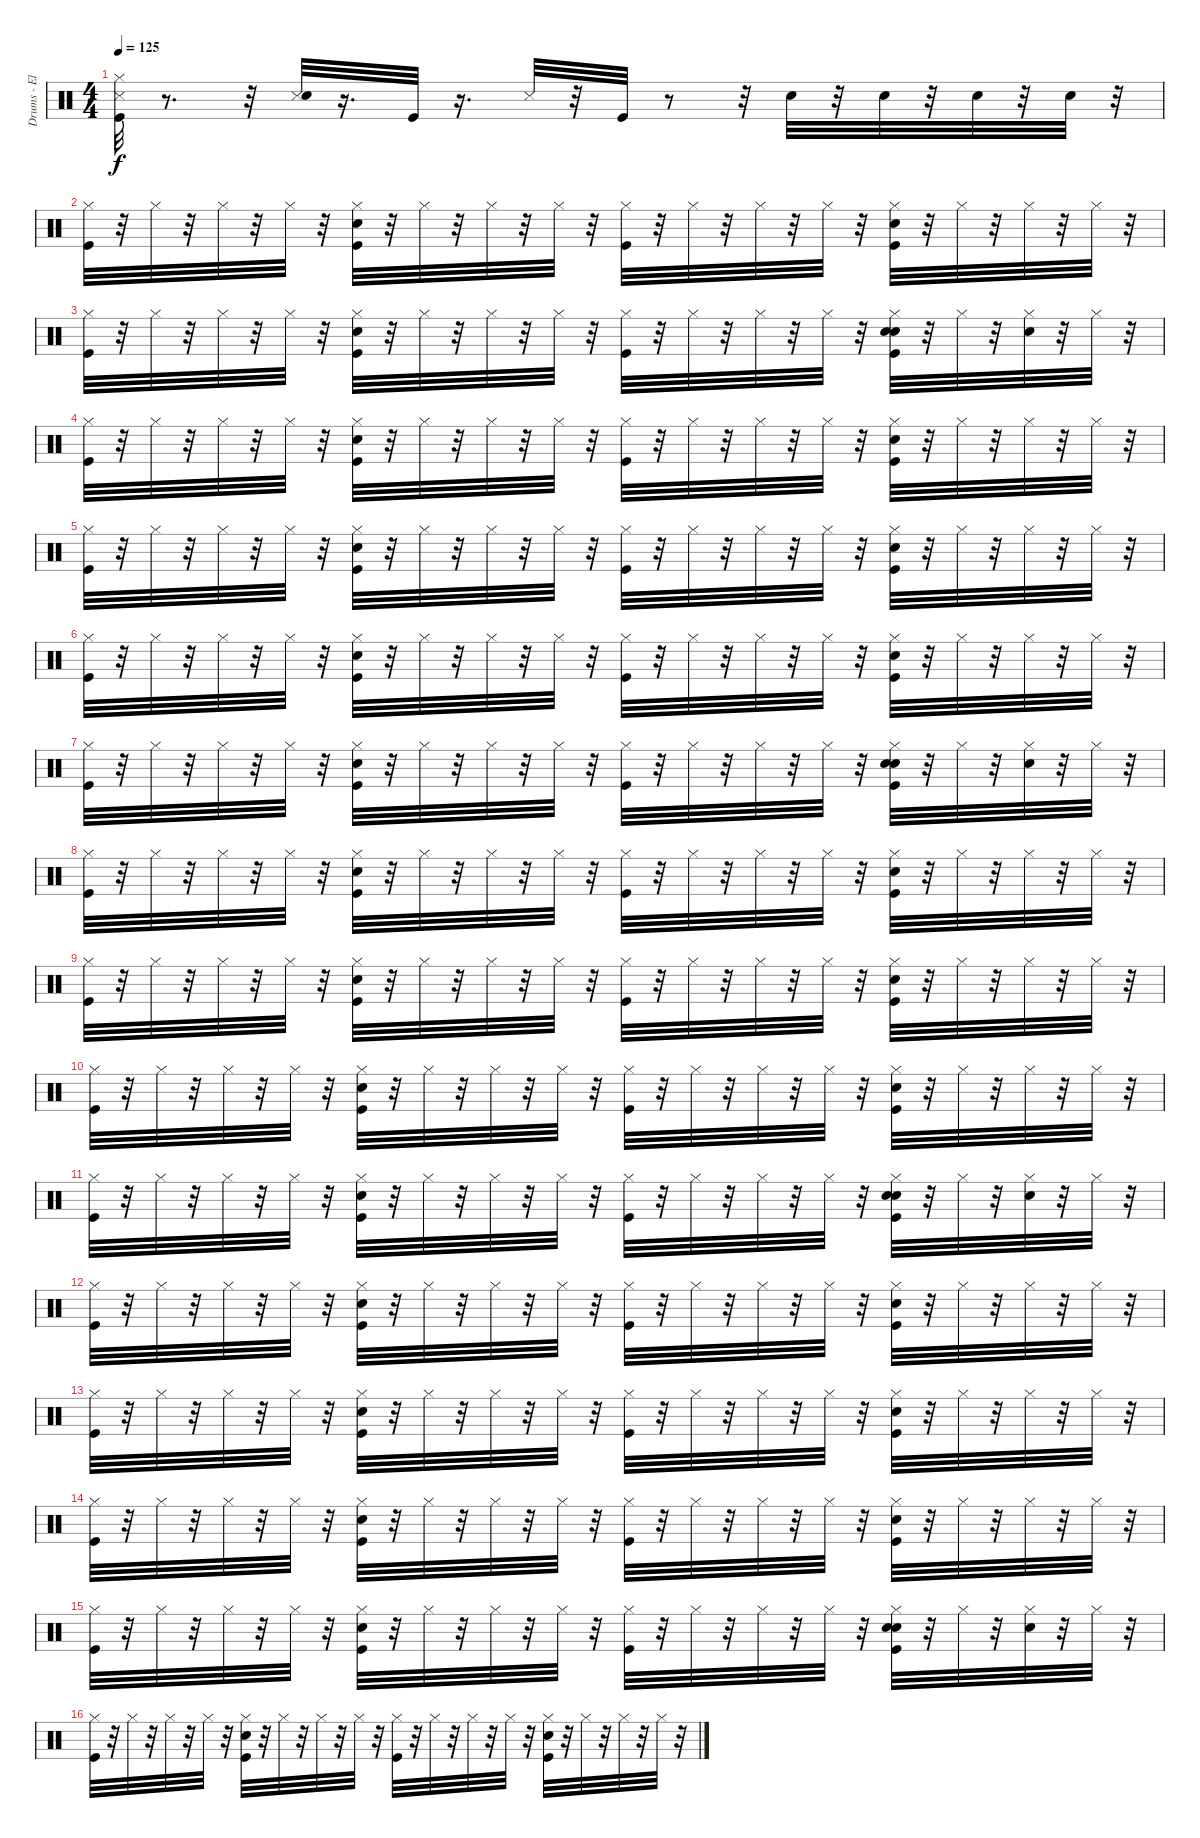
\track ("Drums - El" "Drums - El") {instrument percussion}
\staff {score}
\articulation defaults
\ts (4 4)
\tempo 125
\clef neutral
\ks c
("Kick (hit)" "Snare (side stick) 3" "Hi-Hat (closed)").32{dy f} r.8{d} r.32 ("Snare (side stick) 3" "Electric Snare (hit)").32 r.16{d} "Kick (hit)".32 r.16{d} "Snare (side stick) 3".32 r.32 "Kick (hit)".32 r.8 r.32 "Electric Snare (hit)".32 r.32 "Electric Snare (hit)".32 r.32 "Electric Snare (hit)".32 r.32 "Electric Snare (hit)".32 r.32 |
("Kick (hit)" "Hi-Hat (closed)").32 r.32 "Hi-Hat (closed)".32 r.32 "Hi-Hat (closed)".32 r.32 "Hi-Hat (closed)".32 r.32 ("Kick (hit)" "Electric Snare (hit)" "Hi-Hat (closed)").32 r.32 "Hi-Hat (closed)".32 r.32 "Hi-Hat (closed)".32 r.32 "Hi-Hat (closed)".32 r.32 ("Kick (hit)" "Hi-Hat (closed)").32 r.32 "Hi-Hat (closed)".32 r.32 "Hi-Hat (closed)".32 r.32 "Hi-Hat (closed)".32 r.32 ("Kick (hit)" "Electric Snare (hit)" "Hi-Hat (closed)").32 r.32 "Hi-Hat (closed)".32 r.32 "Hi-Hat (closed)".32 r.32 "Hi-Hat (closed)".32 r.32 |
("Kick (hit)" "Hi-Hat (closed)").32 r.32 "Hi-Hat (closed)".32 r.32 "Hi-Hat (closed)".32 r.32 "Hi-Hat (closed)".32 r.32 ("Kick (hit)" "Electric Snare (hit)" "Hi-Hat (closed)").32 r.32 "Hi-Hat (closed)".32 r.32 "Hi-Hat (closed)".32 r.32 "Hi-Hat (closed)".32 r.32 ("Kick (hit)" "Hi-Hat (closed)").32 r.32 "Hi-Hat (closed)".32 r.32 "Hi-Hat (closed)".32 r.32 "Hi-Hat (closed)".32 r.32 ("Kick (hit)" "Electric Snare (hit)" "Hand Clap (hit)" "Hi-Hat (closed)").32 r.32 "Hi-Hat (closed)".32 r.32 ("Hand Clap (hit)" "Hi-Hat (closed)").32 r.32 "Hi-Hat (closed)".32 r.32 |
("Kick (hit)" "Hi-Hat (closed)").32 r.32 "Hi-Hat (closed)".32 r.32 "Hi-Hat (closed)".32 r.32 "Hi-Hat (closed)".32 r.32 ("Kick (hit)" "Electric Snare (hit)" "Hi-Hat (closed)").32 r.32 "Hi-Hat (closed)".32 r.32 "Hi-Hat (closed)".32 r.32 "Hi-Hat (closed)".32 r.32 ("Kick (hit)" "Hi-Hat (closed)").32 r.32 "Hi-Hat (closed)".32 r.32 "Hi-Hat (closed)".32 r.32 "Hi-Hat (closed)".32 r.32 ("Kick (hit)" "Electric Snare (hit)" "Hi-Hat (closed)").32 r.32 "Hi-Hat (closed)".32 r.32 "Hi-Hat (closed)".32 r.32 "Hi-Hat (closed)".32 r.32 |
("Kick (hit)" "Hi-Hat (closed)").32 r.32 "Hi-Hat (closed)".32 r.32 "Hi-Hat (closed)".32 r.32 "Hi-Hat (closed)".32 r.32 ("Kick (hit)" "Electric Snare (hit)" "Hi-Hat (closed)").32 r.32 "Hi-Hat (closed)".32 r.32 "Hi-Hat (closed)".32 r.32 "Hi-Hat (closed)".32 r.32 ("Kick (hit)" "Hi-Hat (closed)").32 r.32 "Hi-Hat (closed)".32 r.32 "Hi-Hat (closed)".32 r.32 "Hi-Hat (closed)".32 r.32 ("Kick (hit)" "Electric Snare (hit)" "Hi-Hat (closed)").32 r.32 "Hi-Hat (closed)".32 r.32 "Hi-Hat (closed)".32 r.32 "Hi-Hat (closed)".32 r.32 |
("Kick (hit)" "Hi-Hat (closed)").32 r.32 "Hi-Hat (closed)".32 r.32 "Hi-Hat (closed)".32 r.32 "Hi-Hat (closed)".32 r.32 ("Kick (hit)" "Electric Snare (hit)" "Hi-Hat (closed)").32 r.32 "Hi-Hat (closed)".32 r.32 "Hi-Hat (closed)".32 r.32 "Hi-Hat (closed)".32 r.32 ("Kick (hit)" "Hi-Hat (closed)").32 r.32 "Hi-Hat (closed)".32 r.32 "Hi-Hat (closed)".32 r.32 "Hi-Hat (closed)".32 r.32 ("Kick (hit)" "Electric Snare (hit)" "Hi-Hat (closed)").32 r.32 "Hi-Hat (closed)".32 r.32 "Hi-Hat (closed)".32 r.32 "Hi-Hat (closed)".32 r.32 |
("Kick (hit)" "Hi-Hat (closed)").32 r.32 "Hi-Hat (closed)".32 r.32 "Hi-Hat (closed)".32 r.32 "Hi-Hat (closed)".32 r.32 ("Kick (hit)" "Electric Snare (hit)" "Hi-Hat (closed)").32 r.32 "Hi-Hat (closed)".32 r.32 "Hi-Hat (closed)".32 r.32 "Hi-Hat (closed)".32 r.32 ("Kick (hit)" "Hi-Hat (closed)").32 r.32 "Hi-Hat (closed)".32 r.32 "Hi-Hat (closed)".32 r.32 "Hi-Hat (closed)".32 r.32 ("Kick (hit)" "Electric Snare (hit)" "Hand Clap (hit)" "Hi-Hat (closed)").32 r.32 "Hi-Hat (closed)".32 r.32 ("Hand Clap (hit)" "Hi-Hat (closed)").32 r.32 "Hi-Hat (closed)".32 r.32 |
("Kick (hit)" "Hi-Hat (closed)").32 r.32 "Hi-Hat (closed)".32 r.32 "Hi-Hat (closed)".32 r.32 "Hi-Hat (closed)".32 r.32 ("Kick (hit)" "Electric Snare (hit)" "Hi-Hat (closed)").32 r.32 "Hi-Hat (closed)".32 r.32 "Hi-Hat (closed)".32 r.32 "Hi-Hat (closed)".32 r.32 ("Kick (hit)" "Hi-Hat (closed)").32 r.32 "Hi-Hat (closed)".32 r.32 "Hi-Hat (closed)".32 r.32 "Hi-Hat (closed)".32 r.32 ("Kick (hit)" "Electric Snare (hit)" "Hi-Hat (closed)").32 r.32 "Hi-Hat (closed)".32 r.32 "Hi-Hat (closed)".32 r.32 "Hi-Hat (closed)".32 r.32 |
("Kick (hit)" "Hi-Hat (closed)").32 r.32 "Hi-Hat (closed)".32 r.32 "Hi-Hat (closed)".32 r.32 "Hi-Hat (closed)".32 r.32 ("Kick (hit)" "Electric Snare (hit)" "Hi-Hat (closed)").32 r.32 "Hi-Hat (closed)".32 r.32 "Hi-Hat (closed)".32 r.32 "Hi-Hat (closed)".32 r.32 ("Kick (hit)" "Hi-Hat (closed)").32 r.32 "Hi-Hat (closed)".32 r.32 "Hi-Hat (closed)".32 r.32 "Hi-Hat (closed)".32 r.32 ("Kick (hit)" "Electric Snare (hit)" "Hi-Hat (closed)").32 r.32 "Hi-Hat (closed)".32 r.32 "Hi-Hat (closed)".32 r.32 "Hi-Hat (closed)".32 r.32 |
("Kick (hit)" "Hi-Hat (closed)").32 r.32 "Hi-Hat (closed)".32 r.32 "Hi-Hat (closed)".32 r.32 "Hi-Hat (closed)".32 r.32 ("Kick (hit)" "Electric Snare (hit)" "Hi-Hat (closed)").32 r.32 "Hi-Hat (closed)".32 r.32 "Hi-Hat (closed)".32 r.32 "Hi-Hat (closed)".32 r.32 ("Kick (hit)" "Hi-Hat (closed)").32 r.32 "Hi-Hat (closed)".32 r.32 "Hi-Hat (closed)".32 r.32 "Hi-Hat (closed)".32 r.32 ("Kick (hit)" "Electric Snare (hit)" "Hi-Hat (closed)").32 r.32 "Hi-Hat (closed)".32 r.32 "Hi-Hat (closed)".32 r.32 "Hi-Hat (closed)".32 r.32 |
("Kick (hit)" "Hi-Hat (closed)").32 r.32 "Hi-Hat (closed)".32 r.32 "Hi-Hat (closed)".32 r.32 "Hi-Hat (closed)".32 r.32 ("Kick (hit)" "Electric Snare (hit)" "Hi-Hat (closed)").32 r.32 "Hi-Hat (closed)".32 r.32 "Hi-Hat (closed)".32 r.32 "Hi-Hat (closed)".32 r.32 ("Kick (hit)" "Hi-Hat (closed)").32 r.32 "Hi-Hat (closed)".32 r.32 "Hi-Hat (closed)".32 r.32 "Hi-Hat (closed)".32 r.32 ("Kick (hit)" "Electric Snare (hit)" "Hand Clap (hit)" "Hi-Hat (closed)").32 r.32 "Hi-Hat (closed)".32 r.32 ("Hand Clap (hit)" "Hi-Hat (closed)").32 r.32 "Hi-Hat (closed)".32 r.32 |
("Kick (hit)" "Hi-Hat (closed)").32 r.32 "Hi-Hat (closed)".32 r.32 "Hi-Hat (closed)".32 r.32 "Hi-Hat (closed)".32 r.32 ("Kick (hit)" "Electric Snare (hit)" "Hi-Hat (closed)").32 r.32 "Hi-Hat (closed)".32 r.32 "Hi-Hat (closed)".32 r.32 "Hi-Hat (closed)".32 r.32 ("Kick (hit)" "Hi-Hat (closed)").32 r.32 "Hi-Hat (closed)".32 r.32 "Hi-Hat (closed)".32 r.32 "Hi-Hat (closed)".32 r.32 ("Kick (hit)" "Electric Snare (hit)" "Hi-Hat (closed)").32 r.32 "Hi-Hat (closed)".32 r.32 "Hi-Hat (closed)".32 r.32 "Hi-Hat (closed)".32 r.32 |
("Kick (hit)" "Hi-Hat (closed)").32 r.32 "Hi-Hat (closed)".32 r.32 "Hi-Hat (closed)".32 r.32 "Hi-Hat (closed)".32 r.32 ("Kick (hit)" "Electric Snare (hit)" "Hi-Hat (closed)").32 r.32 "Hi-Hat (closed)".32 r.32 "Hi-Hat (closed)".32 r.32 "Hi-Hat (closed)".32 r.32 ("Kick (hit)" "Hi-Hat (closed)").32 r.32 "Hi-Hat (closed)".32 r.32 "Hi-Hat (closed)".32 r.32 "Hi-Hat (closed)".32 r.32 ("Kick (hit)" "Electric Snare (hit)" "Hi-Hat (closed)").32 r.32 "Hi-Hat (closed)".32 r.32 "Hi-Hat (closed)".32 r.32 "Hi-Hat (closed)".32 r.32 |
("Kick (hit)" "Hi-Hat (closed)").32 r.32 "Hi-Hat (closed)".32 r.32 "Hi-Hat (closed)".32 r.32 "Hi-Hat (closed)".32 r.32 ("Kick (hit)" "Electric Snare (hit)" "Hi-Hat (closed)").32 r.32 "Hi-Hat (closed)".32 r.32 "Hi-Hat (closed)".32 r.32 "Hi-Hat (closed)".32 r.32 ("Kick (hit)" "Hi-Hat (closed)").32 r.32 "Hi-Hat (closed)".32 r.32 "Hi-Hat (closed)".32 r.32 "Hi-Hat (closed)".32 r.32 ("Kick (hit)" "Electric Snare (hit)" "Hi-Hat (closed)").32 r.32 "Hi-Hat (closed)".32 r.32 "Hi-Hat (closed)".32 r.32 "Hi-Hat (closed)".32 r.32 |
("Kick (hit)" "Hi-Hat (closed)").32 r.32 "Hi-Hat (closed)".32 r.32 "Hi-Hat (closed)".32 r.32 "Hi-Hat (closed)".32 r.32 ("Kick (hit)" "Electric Snare (hit)" "Hi-Hat (closed)").32 r.32 "Hi-Hat (closed)".32 r.32 "Hi-Hat (closed)".32 r.32 "Hi-Hat (closed)".32 r.32 ("Kick (hit)" "Hi-Hat (closed)").32 r.32 "Hi-Hat (closed)".32 r.32 "Hi-Hat (closed)".32 r.32 "Hi-Hat (closed)".32 r.32 ("Kick (hit)" "Electric Snare (hit)" "Hand Clap (hit)" "Hi-Hat (closed)").32 r.32 "Hi-Hat (closed)".32 r.32 ("Hand Clap (hit)" "Hi-Hat (closed)").32 r.32 "Hi-Hat (closed)".32 r.32 |
("Kick (hit)" "Hi-Hat (closed)").32 r.32 "Hi-Hat (closed)".32 r.32 "Hi-Hat (closed)".32 r.32 "Hi-Hat (closed)".32 r.32 ("Kick (hit)" "Electric Snare (hit)" "Hi-Hat (closed)").32 r.32 "Hi-Hat (closed)".32 r.32 "Hi-Hat (closed)".32 r.32 "Hi-Hat (closed)".32 r.32 ("Kick (hit)" "Hi-Hat (closed)").32 r.32 "Hi-Hat (closed)".32 r.32 "Hi-Hat (closed)".32 r.32 "Hi-Hat (closed)".32 r.32 ("Kick (hit)" "Electric Snare (hit)" "Hi-Hat (closed)").32 r.32 "Hi-Hat (closed)".32 r.32 "Hi-Hat (closed)".32 r.32 "Hi-Hat (closed)".32 r.32
